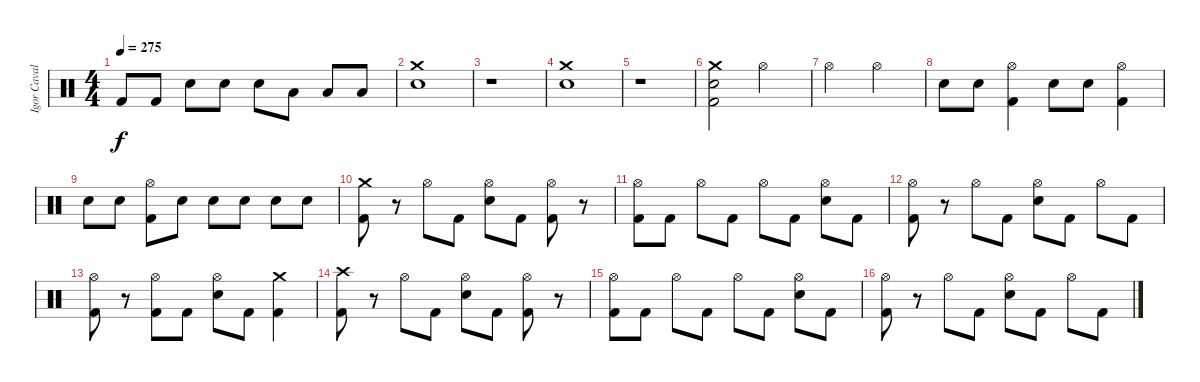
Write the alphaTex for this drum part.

\track ("Igor Cavalera" "Igor Caval") {instrument percussion}
\staff {score}
\articulation defaults
\ts (4 4)
\tempo 275
\clef neutral
\ks c "Kick (hit) 2".8{dy f} "Kick (hit) 2".8 "Electric Snare (hit)".8 "Electric Snare (hit)".8 "Electric Snare (hit)".8 "Low Tom (hit)".8 "Low Tom (hit)".8 "Low Tom (hit)".8
|
("Crash medium (hit)" "Electric Snare (hit)").1 |
r.1 |
("Electric Snare (hit)" "Crash medium (hit)").1 |
r.1 |
("Kick (hit) 2" "Crash medium (hit)" "Electric Snare (hit)").2 "Hi-Hat (open)".2 |
"Hi-Hat (open)".2 "Hi-Hat (open)".2 |
"Electric Snare (hit)".8 "Electric Snare (hit)".8 ("Hi-Hat (open)" "Kick (hit) 2").4 "Electric Snare (hit)".8 "Electric Snare (hit)".8 ("Hi-Hat (open)" "Kick (hit) 2").4 |
"Electric Snare (hit)".8 "Electric Snare (hit)".8 ("Hi-Hat (open)" "Kick (hit) 2").8 "Electric Snare (hit)".8 "Electric Snare (hit)".8 "Electric Snare (hit)".8 "Electric Snare (hit)".8 "Electric Snare (hit)".8 |
("Crash medium (hit)" "Kick (hit) 2").8 r.8 "Hi-Hat (open)".8 "Kick (hit) 2".8 ("Electric Snare (hit)" "Hi-Hat (open)").8 "Kick (hit) 2".8 ("Kick (hit) 2" "Hi-Hat (open)").8 r.8 |
("Kick (hit) 2" "Hi-Hat (open)").8 "Kick (hit) 2".8 "Hi-Hat (open)".8 "Kick (hit) 2".8 "Hi-Hat (open)".8 "Kick (hit) 2".8 ("Electric Snare (hit)" "Hi-Hat (open)").8 "Kick (hit) 2".8 |
("Kick (hit) 2" "Hi-Hat (open)").8 r.8 "Hi-Hat (open)".8 "Kick (hit) 2".8 ("Electric Snare (hit)" "Hi-Hat (open)").8 "Kick (hit) 2".8 "Hi-Hat (open)".8 "Kick (hit) 2".8 |
("Kick (hit) 2" "Hi-Hat (open)").8 r.8 ("Kick (hit) 2" "Hi-Hat (open)").8 "Kick (hit) 2".8 ("Electric Snare (hit)" "Hi-Hat (open)").8 "Kick (hit) 2".8 ("Kick (hit) 2" "Crash medium (hit)").4 |
("Crash high (hit)" "Kick (hit) 2").8 r.8 "Hi-Hat (open)".8 "Kick (hit) 2".8 ("Electric Snare (hit)" "Hi-Hat (open)").8 "Kick (hit) 2".8 ("Kick (hit) 2" "Hi-Hat (open)").8 r.8 |
("Kick (hit) 2" "Hi-Hat (open)").8 "Kick (hit) 2".8 "Hi-Hat (open)".8 "Kick (hit) 2".8 "Hi-Hat (open)".8 "Kick (hit) 2".8 ("Electric Snare (hit)" "Hi-Hat (open)").8 "Kick (hit) 2".8 |
("Kick (hit) 2" "Hi-Hat (open)").8 r.8 "Hi-Hat (open)".8 "Kick (hit) 2".8 ("Electric Snare (hit)" "Hi-Hat (open)").8 "Kick (hit) 2".8 "Hi-Hat (open)".8 "Kick (hit) 2".8
